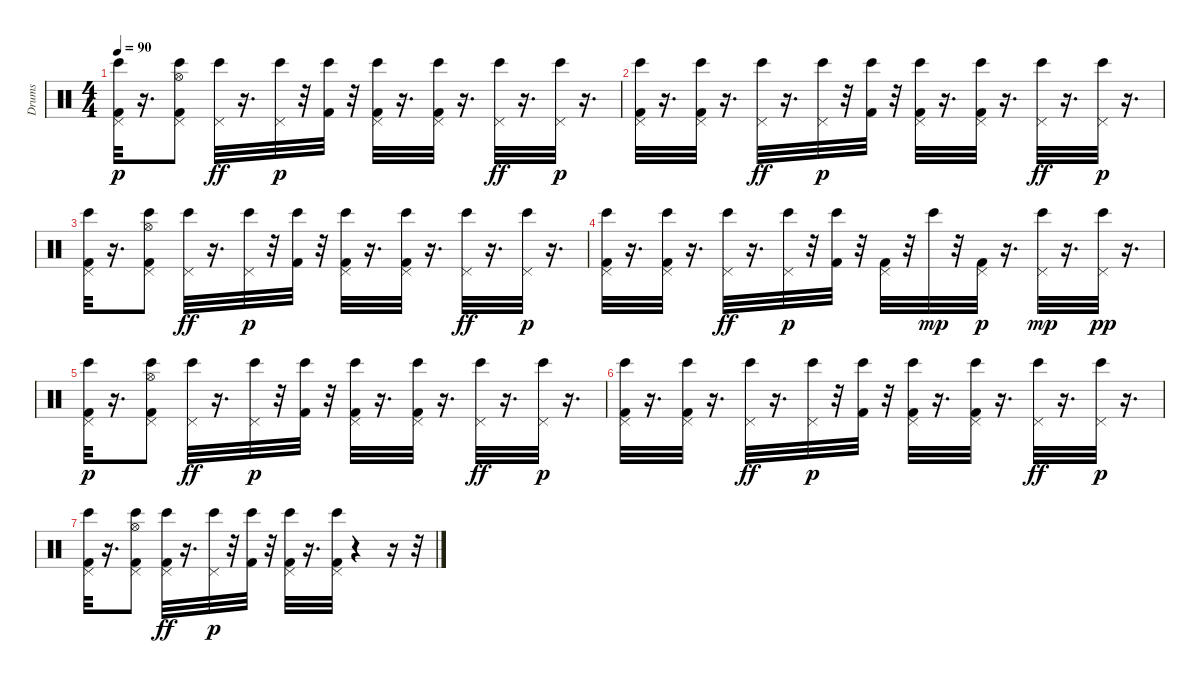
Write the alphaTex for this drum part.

\track ("Drums" "Drums") {instrument percussion}
\staff {score}
\articulation defaults
\ts (4 4)
\tempo 90
\clef neutral
\ks c
("Kick (hit) 2" "Pedal Hi-Hat (hit)" "Bongo High (hit)").32{dy p balance 6} r.16{d} ("Hi-Hat (open)" "Kick (hit) 2" "Bongo High (hit)" "Pedal Hi-Hat (hit)").8 ("Pedal Hi-Hat (hit)" "Bongo High (hit)").32{dy ff balance 10} r.16{d} ("Pedal Hi-Hat (hit)" "Bongo High (hit)").32{dy p} r.32 ("Kick (hit) 2" "Bongo High (hit)").32 r.32 ("Pedal Hi-Hat (hit)" "Bongo High (hit)" "Kick (hit) 2").32{balance 6} r.16{d} ("Pedal Hi-Hat (hit)" "Kick (hit) 2" "Bongo High (hit)").32 r.16{d} ("Pedal Hi-Hat (hit)" "Bongo High (hit)").32{dy ff balance 10} r.16{d} ("Pedal Hi-Hat (hit)" "Bongo High (hit)").32{dy p} r.16{d} |
("Pedal Hi-Hat (hit)" "Bongo High (hit)" "Kick (hit) 2").32{volume 7 balance 6} r.16{d} ("Kick (hit) 2" "Bongo High (hit)" "Pedal Hi-Hat (hit)").32{volume 7} r.16{d} ("Pedal Hi-Hat (hit)" "Bongo High (hit)").32{dy ff volume 7 balance 10} r.16{d} ("Pedal Hi-Hat (hit)" "Bongo High (hit)").32{dy p volume 7} r.32 ("Kick (hit) 2" "Bongo High (hit)").32 r.32 ("Kick (hit) 2" "Pedal Hi-Hat (hit)" "Bongo High (hit)").32{volume 6 balance 6} r.16{d} ("Pedal Hi-Hat (hit)" "Kick (hit) 2" "Bongo High (hit)").32{volume 6} r.16{d} ("Pedal Hi-Hat (hit)" "Bongo High (hit)").32{dy ff volume 6 balance 10} r.16{d} ("Pedal Hi-Hat (hit)" "Bongo High (hit)").32{dy p volume 6} r.16{d} |
("Kick (hit) 2" "Pedal Hi-Hat (hit)" "Bongo High (hit)").32{volume 6 balance 6} r.16{d} ("Hi-Hat (open)" "Kick (hit) 2" "Bongo High (hit)" "Pedal Hi-Hat (hit)").8{volume 6} ("Pedal Hi-Hat (hit)" "Bongo High (hit)").32{dy ff volume 6 balance 10} r.16{d} ("Pedal Hi-Hat (hit)" "Bongo High (hit)").32{dy p volume 6} r.32 ("Kick (hit) 2" "Bongo High (hit)").32 r.32 ("Kick (hit) 2" "Pedal Hi-Hat (hit)" "Bongo High (hit)").32{volume 6 balance 6} r.16{d} ("Pedal Hi-Hat (hit)" "Kick (hit) 2" "Bongo High (hit)").32{volume 5} r.16{d} ("Pedal Hi-Hat (hit)" "Bongo High (hit)").32{dy ff volume 5 balance 10} r.16{d} ("Pedal Hi-Hat (hit)" "Bongo High (hit)").32{dy p volume 5} r.16{d} |
("Kick (hit) 2" "Pedal Hi-Hat (hit)" "Bongo High (hit)").32{volume 5 balance 6} r.16{d} ("Kick (hit) 2" "Bongo High (hit)" "Pedal Hi-Hat (hit)").32{volume 5} r.16{d} ("Pedal Hi-Hat (hit)" "Bongo High (hit)").32{dy ff volume 5 balance 10} r.16{d} ("Pedal Hi-Hat (hit)" "Bongo High (hit)").32{dy p volume 5} r.32 ("Kick (hit) 2" "Bongo High (hit)").32 r.32 ("Pedal Hi-Hat (hit)" "Kick (hit) 2").32{volume 4 balance 6} r.32 "Bongo High (hit)".32{dy mp} r.32 ("Pedal Hi-Hat (hit)" "Kick (hit) 2").32{dy p volume 4} r.16{d} ("Pedal Hi-Hat (hit)" "Bongo High (hit)").32{dy mp volume 4 balance 10} r.16{d} ("Pedal Hi-Hat (hit)" "Bongo High (hit)").32{dy pp volume 4} r.16{d} |
("Kick (hit) 2" "Pedal Hi-Hat (hit)" "Bongo High (hit)").32{dy p volume 4 balance 6} r.16{d} ("Hi-Hat (open)" "Kick (hit) 2" "Bongo High (hit)" "Pedal Hi-Hat (hit)").8{volume 4} ("Pedal Hi-Hat (hit)" "Bongo High (hit)").32{dy ff volume 4 balance 10} r.16{d} ("Pedal Hi-Hat (hit)" "Bongo High (hit)").32{dy p volume 4} r.32 ("Kick (hit) 2" "Bongo High (hit)").32 r.32 ("Kick (hit) 2" "Pedal Hi-Hat (hit)" "Bongo High (hit)").32{volume 4 balance 6} r.16{d} ("Pedal Hi-Hat (hit)" "Kick (hit) 2" "Bongo High (hit)").32{volume 3} r.16{d} ("Pedal Hi-Hat (hit)" "Bongo High (hit)").32{dy ff volume 3 balance 10} r.16{d} ("Pedal Hi-Hat (hit)" "Bongo High (hit)").32{dy p volume 3} r.16{d} |
("Kick (hit) 2" "Pedal Hi-Hat (hit)" "Bongo High (hit)").32{volume 3 balance 6} r.16{d} ("Kick (hit) 2" "Bongo High (hit)" "Pedal Hi-Hat (hit)").32{volume 3} r.16{d} ("Pedal Hi-Hat (hit)" "Bongo High (hit)").32{dy ff volume 3 balance 10} r.16{d} ("Pedal Hi-Hat (hit)" "Bongo High (hit)").32{dy p volume 3} r.32 ("Kick (hit) 2" "Bongo High (hit)").32 r.32 ("Kick (hit) 2" "Pedal Hi-Hat (hit)" "Bongo High (hit)").32{volume 2 balance 6} r.16{d} ("Pedal Hi-Hat (hit)" "Kick (hit) 2" "Bongo High (hit)").32{volume 2} r.16{d} ("Pedal Hi-Hat (hit)" "Bongo High (hit)").32{dy ff volume 2 balance 10} r.16{d} ("Pedal Hi-Hat (hit)" "Bongo High (hit)").32{dy p volume 2} r.16{d} |
("Kick (hit) 2" "Pedal Hi-Hat (hit)" "Bongo High (hit)").32{volume 2 balance 6} r.16{d} ("Hi-Hat (open)" "Kick (hit) 2" "Bongo High (hit)" "Pedal Hi-Hat (hit)").8{volume 2} ("Kick (hit) 2" "Pedal Hi-Hat (hit)" "Bongo High (hit)").32{dy ff volume 2 balance 10} r.16{d} ("Pedal Hi-Hat (hit)" "Bongo High (hit)").32{dy p volume 2} r.32 ("Kick (hit) 2" "Bongo High (hit)").32 r.32 ("Kick (hit) 2" "Pedal Hi-Hat (hit)" "Bongo High (hit)").32{volume 2 balance 6} r.16{d} ("Pedal Hi-Hat (hit)" "Kick (hit) 2" "Bongo High (hit)").32{volume 1} r.4 r.16 r.32
